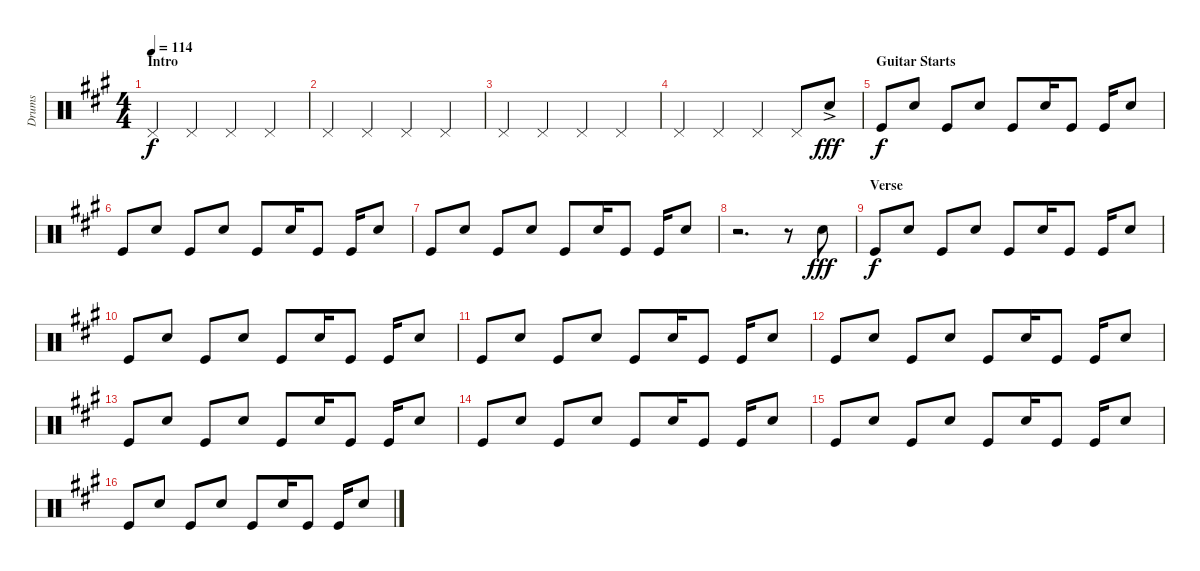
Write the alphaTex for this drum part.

\track ("Drums" "Drums") {instrument percussion}
\staff {score}
\articulation defaults
\ts (4 4)
\section ("" "Intro")
\tempo 114
\clef neutral
\ks a "Pedal Hi-Hat (hit)".4{dy f volume 4} "Pedal Hi-Hat (hit)".4 "Pedal Hi-Hat (hit)".4 "Pedal Hi-Hat (hit)".4
|
"Pedal Hi-Hat (hit)".4 "Pedal Hi-Hat (hit)".4 "Pedal Hi-Hat (hit)".4 "Pedal Hi-Hat (hit)".4 |
"Pedal Hi-Hat (hit)".4 "Pedal Hi-Hat (hit)".4 "Pedal Hi-Hat (hit)".4 "Pedal Hi-Hat (hit)".4 |
"Pedal Hi-Hat (hit)".4 "Pedal Hi-Hat (hit)".4 "Pedal Hi-Hat (hit)".4 "Pedal Hi-Hat (hit)".8 "Electric Snare (hit)"{ac}.8{dy fff volume 14} |
\section ("" "Guitar Starts")
"Kick (hit)".8{dy f} "Electric Snare (hit)".8 "Kick (hit)".8 "Electric Snare (hit)".8 "Kick (hit)".8 "Electric Snare (hit)".16 "Kick (hit)".8 "Kick (hit)".16 "Electric Snare (hit)".8 |
"Kick (hit)".8 "Electric Snare (hit)".8 "Kick (hit)".8 "Electric Snare (hit)".8 "Kick (hit)".8 "Electric Snare (hit)".16 "Kick (hit)".8 "Kick (hit)".16 "Electric Snare (hit)".8 |
"Kick (hit)".8 "Electric Snare (hit)".8 "Kick (hit)".8 "Electric Snare (hit)".8 "Kick (hit)".8 "Electric Snare (hit)".16 "Kick (hit)".8 "Kick (hit)".16 "Electric Snare (hit)".8 |
r.2{d} r.8 "Electric Snare (hit)".8{dy fff} |
\section ("" "Verse")
"Kick (hit)".8{dy f} "Electric Snare (hit)".8 "Kick (hit)".8 "Electric Snare (hit)".8 "Kick (hit)".8 "Electric Snare (hit)".16 "Kick (hit)".8 "Kick (hit)".16 "Electric Snare (hit)".8 |
"Kick (hit)".8 "Electric Snare (hit)".8 "Kick (hit)".8 "Electric Snare (hit)".8 "Kick (hit)".8 "Electric Snare (hit)".16 "Kick (hit)".8 "Kick (hit)".16 "Electric Snare (hit)".8 |
"Kick (hit)".8 "Electric Snare (hit)".8 "Kick (hit)".8 "Electric Snare (hit)".8 "Kick (hit)".8 "Electric Snare (hit)".16 "Kick (hit)".8 "Kick (hit)".16 "Electric Snare (hit)".8 |
"Kick (hit)".8 "Electric Snare (hit)".8 "Kick (hit)".8 "Electric Snare (hit)".8 "Kick (hit)".8 "Electric Snare (hit)".16 "Kick (hit)".8 "Kick (hit)".16 "Electric Snare (hit)".8 |
"Kick (hit)".8 "Electric Snare (hit)".8 "Kick (hit)".8 "Electric Snare (hit)".8 "Kick (hit)".8 "Electric Snare (hit)".16 "Kick (hit)".8 "Kick (hit)".16 "Electric Snare (hit)".8 |
"Kick (hit)".8 "Electric Snare (hit)".8 "Kick (hit)".8 "Electric Snare (hit)".8 "Kick (hit)".8 "Electric Snare (hit)".16 "Kick (hit)".8 "Kick (hit)".16 "Electric Snare (hit)".8 |
"Kick (hit)".8 "Electric Snare (hit)".8 "Kick (hit)".8 "Electric Snare (hit)".8 "Kick (hit)".8 "Electric Snare (hit)".16 "Kick (hit)".8 "Kick (hit)".16 "Electric Snare (hit)".8 |
"Kick (hit)".8 "Electric Snare (hit)".8 "Kick (hit)".8 "Electric Snare (hit)".8 "Kick (hit)".8 "Electric Snare (hit)".16 "Kick (hit)".8 "Kick (hit)".16 "Electric Snare (hit)".8
